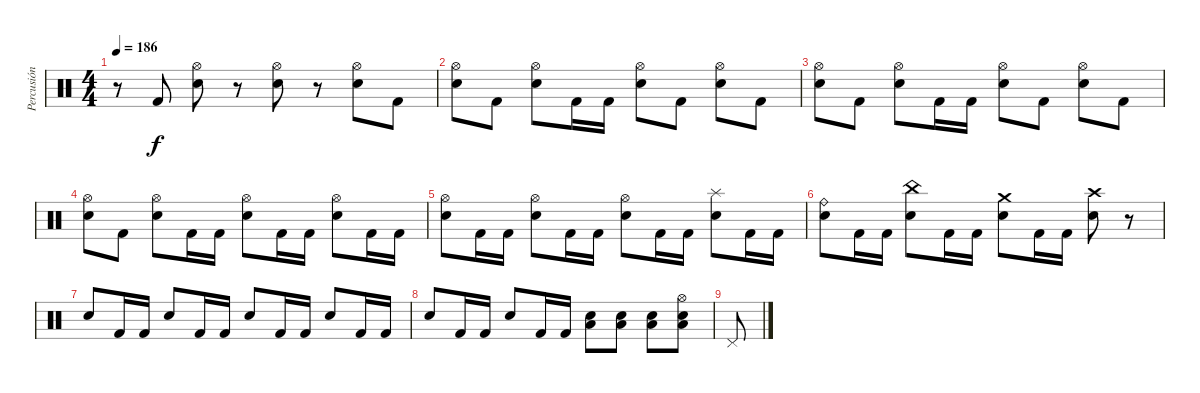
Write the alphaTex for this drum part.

\track ("Percusión" "Percusión") {instrument percussion}
\staff {score}
\articulation defaults
\ts (4 4)
\tempo 186
\clef neutral
\ks c
r.8{dy f} "Kick (hit) 2".8 ("Snare (hit) 2" "Hi-Hat (open)").8 r.8 ("Snare (hit) 2" "Hi-Hat (open)").8 r.8 ("Snare (hit) 2" "Hi-Hat (open)").8 "Kick (hit) 2".8 |
("Snare (hit) 2" "Hi-Hat (open)").8 "Kick (hit) 2".8 ("Snare (hit) 2" "Hi-Hat (open)").8 "Kick (hit) 2".16 "Kick (hit) 2".16 ("Snare (hit) 2" "Hi-Hat (open)").8 "Kick (hit) 2".8 ("Snare (hit) 2" "Hi-Hat (open)").8 "Kick (hit) 2".8 |
("Snare (hit) 2" "Hi-Hat (open)").8 "Kick (hit) 2".8 ("Snare (hit) 2" "Hi-Hat (open)").8 "Kick (hit) 2".16 "Kick (hit) 2".16 ("Snare (hit) 2" "Hi-Hat (open)").8 "Kick (hit) 2".8 ("Snare (hit) 2" "Hi-Hat (open)").8 "Kick (hit) 2".8 |
("Snare (hit) 2" "Hi-Hat (open)").8 "Kick (hit) 2".8 ("Snare (hit) 2" "Hi-Hat (open)").8 "Kick (hit) 2".16 "Kick (hit) 2".16 ("Snare (hit) 2" "Hi-Hat (open)").8 "Kick (hit) 2".16 "Kick (hit) 2".16 ("Snare (hit) 2" "Hi-Hat (open)").8 "Kick (hit) 2".16 "Kick (hit) 2".16 |
("Snare (hit) 2" "Hi-Hat (open)").8 "Kick (hit) 2".16 "Kick (hit) 2".16 ("Snare (hit) 2" "Hi-Hat (open)").8 "Kick (hit) 2".16 "Kick (hit) 2".16 ("Snare (hit) 2" "Hi-Hat (open)").8 "Kick (hit) 2".16 "Kick (hit) 2".16 ("Snare (hit) 2" "Splash (hit)").8 "Kick (hit) 2".16 "Kick (hit) 2".16 |
("Snare (hit) 2" "Ride (bell)").8 "Kick (hit) 2".16 "Kick (hit) 2".16 ("Snare (hit) 2" "China (hit)").8 "Kick (hit) 2".16 "Kick (hit) 2".16 ("Snare (hit) 2" "Crash medium (hit)").8 "Kick (hit) 2".16 "Kick (hit) 2".16 ("Snare (hit) 2" "Crash high (hit)").8 r.8 |
"Snare (hit) 2".8 "Kick (hit) 2".16 "Kick (hit) 2".16 "Snare (hit) 2".8 "Kick (hit) 2".16 "Kick (hit) 2".16 "Snare (hit) 2".8 "Kick (hit) 2".16 "Kick (hit) 2".16 "Snare (hit) 2".8 "Kick (hit) 2".16 "Kick (hit) 2".16 |
"Snare (hit) 2".8 "Kick (hit) 2".16 "Kick (hit) 2".16 "Snare (hit) 2".8 "Kick (hit) 2".16 "Kick (hit) 2".16 ("Low Floor Tom (hit)" "Snare (hit) 2").8 ("Low Floor Tom (hit)" "Snare (hit) 2").8 ("Low Floor Tom (hit)" "Snare (hit) 2").8 ("Low Floor Tom (hit)" "Snare (hit) 2" "Hi-Hat (open)").8 |
"Pedal Hi-Hat (hit)".8
